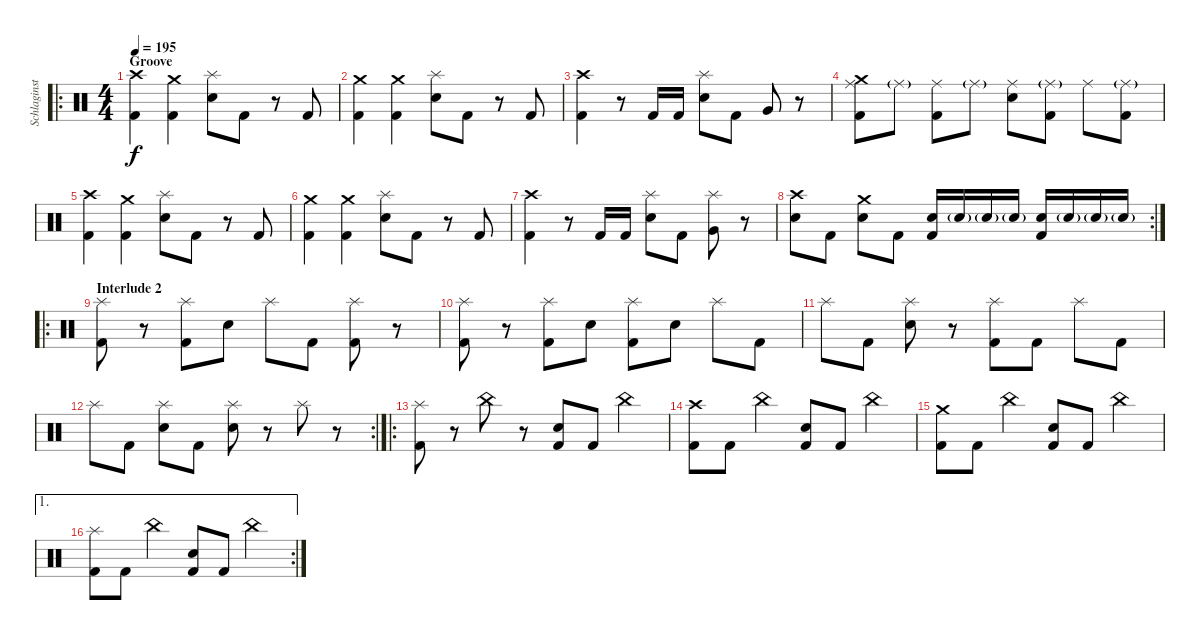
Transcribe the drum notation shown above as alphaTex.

\track ("Schlaginstrumente - Auswahl" "Schlaginst") {instrument percussion}
\staff {score}
\articulation defaults
\ro
\ts (4 4)
\section ("" "Groove")
\tempo 195
\clef neutral
\ks c
("Crash high (hit)" "Kick (hit) 2").4{dy f} ("Crash medium (hit)" "Kick (hit) 2").4 ("Snare (hit) 2" "Splash (hit)").8 "Kick (hit) 2".8 r.8 "Kick (hit) 2".8 |
("Crash medium (hit)" "Kick (hit) 2").4 ("Crash medium (hit)" "Kick (hit) 2").4 ("Snare (hit) 2" "Splash (hit)").8 "Kick (hit) 2".8 r.8 "Kick (hit) 2".8 |
("Crash high (hit)" "Kick (hit) 2").4 r.8 "Kick (hit) 2".16 "Kick (hit) 2".16 ("Snare (hit) 2" "Splash (hit)").8 "Kick (hit) 2".8 "Very Low Tom (hit)".8 r.8 |
("Crash medium (hit)" "Ride (middle)" "Kick (hit) 2").8 "Ride (middle)"{g}.8 ("Ride (middle)" "Kick (hit) 2").8 "Ride (middle)"{g}.8 ("Snare (hit) 2" "Ride (middle)").8 ("Ride (middle)"{g} "Kick (hit) 2").8 "Ride (middle)".8 ("Ride (middle)"{g} "Kick (hit) 2").8 |
("Crash high (hit)" "Kick (hit) 2").4 ("Crash medium (hit)" "Kick (hit) 2").4 ("Snare (hit) 2" "Splash (hit)").8 "Kick (hit) 2".8 r.8 "Kick (hit) 2".8 |
("Crash medium (hit)" "Kick (hit) 2").4 ("Crash medium (hit)" "Kick (hit) 2").4 ("Snare (hit) 2" "Splash (hit)").8 "Kick (hit) 2".8 r.8 "Kick (hit) 2".8 |
("Crash high (hit)" "Kick (hit) 2").4 r.8 "Kick (hit) 2".16 "Kick (hit) 2".16 ("Snare (hit) 2" "Splash (hit)").8 "Kick (hit) 2".8 ("Splash (hit)" "Very Low Tom (hit)").8 r.8 |
\rc 2
("Snare (hit) 2" "Crash high (hit)").8 "Kick (hit) 2".8 ("Snare (hit) 2" "Crash medium (hit)").8 "Kick (hit) 2".8 ("Snare (hit) 2" "Kick (hit) 2").16 "Snare (hit) 2"{g}.16 "Snare (hit) 2"{g}.16 "Snare (hit) 2"{g}.16 ("Snare (hit) 2" "Kick (hit) 2").16 "Snare (hit) 2"{g}.16 "Snare (hit) 2"{g}.16 "Snare (hit) 2"{g}.16 |
\ro
\section ("" "Interlude 2")
("Splash (hit)" "Kick (hit) 2").8 r.8 ("Splash (hit)" "Kick (hit) 2").8 "Snare (hit) 2".8 "Splash (hit)".8 "Kick (hit) 2".8 ("Splash (hit)" "Kick (hit) 2").8 r.8 |
("Splash (hit)" "Kick (hit) 2").8 r.8 ("Splash (hit)" "Kick (hit) 2").8 "Snare (hit) 2".8 ("Splash (hit)" "Kick (hit) 2").8 "Snare (hit) 2".8 "Splash (hit)".8 "Kick (hit) 2".8 |
"Splash (hit)".8 "Kick (hit) 2".8 ("Snare (hit) 2" "Splash (hit)").8 r.8 ("Splash (hit)" "Kick (hit) 2").8 "Kick (hit) 2".8 "Splash (hit)".8 "Kick (hit) 2".8 |
\rc 2 "Splash (hit)".8 "Kick (hit) 2".8
("Snare (hit) 2" "Splash (hit)").8 "Kick (hit) 2".8 ("Snare (hit) 2" "Splash (hit)").8 r.8 "Splash (hit)".8 r.8 |
\ro
("Splash (hit)" "Kick (hit) 2").8 r.8 "China (hit)".8 r.8 ("Snare (hit) 2" "Kick (hit) 2").8 "Kick (hit) 2".8 "China (hit)".4 |
("Crash high (hit)" "Kick (hit) 2").8 "Kick (hit) 2".8 "China (hit)".4 ("Snare (hit) 2" "Kick (hit) 2").8 "Kick (hit) 2".8 "China (hit)".4 |
("Crash medium (hit)" "Kick (hit) 2").8 "Kick (hit) 2".8 "China (hit)".4 ("Snare (hit) 2" "Kick (hit) 2").8 "Kick (hit) 2".8 "China (hit)".4 |
\ae 1
\rc 2
("Splash (hit)" "Kick (hit) 2").8 "Kick (hit) 2".8 "China (hit)".4 ("Snare (hit) 2" "Kick (hit) 2").8 "Kick (hit) 2".8 "China (hit)".4
